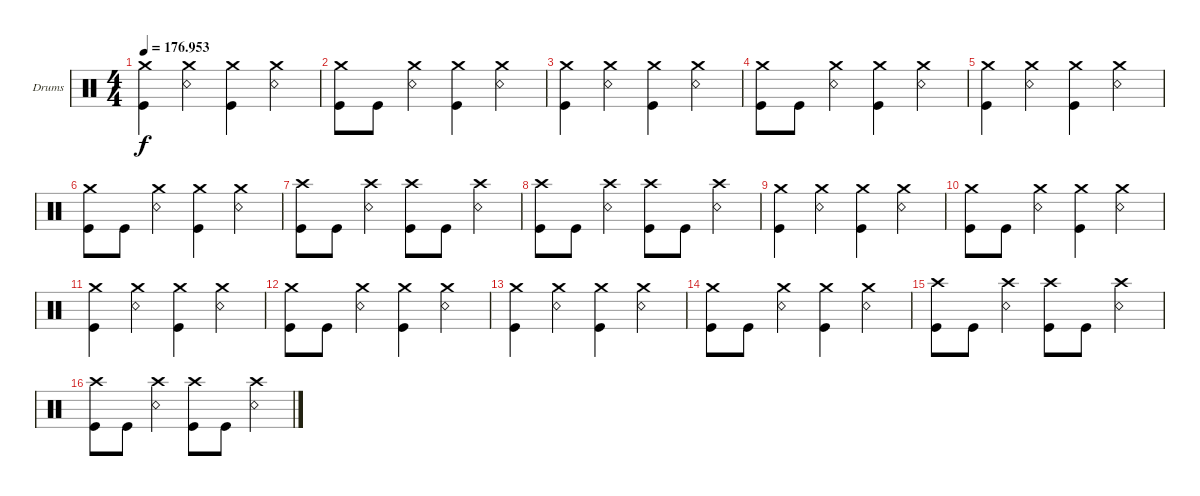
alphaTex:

\defaultSystemsLayout 4
\bracketExtendMode groupsimilarinstruments
\firstSystemTrackNameOrientation horizontal
\otherSystemsTrackNameOrientation horizontal
\track ("Christopher" "Drums") {instrument percussion}
\staff {score}
\articulation defaults
\ts (4 4)
\tempo
176.953
\accidentals auto
\clef neutral
\ottava regular
\simile none
\ks c
("Kick (hit)" "Crash medium (hit)").4{dy f} ("Snare (rim shot)" "Crash medium (hit)").4 ("Kick (hit)" "Crash medium (hit)").4 ("Snare (rim shot)" "Crash medium (hit)").4 |
("Kick (hit)" "Crash medium (hit)").8 "Kick (hit)".8 ("Snare (rim shot)" "Crash medium (hit)").4 ("Kick (hit)" "Crash medium (hit)").4 ("Snare (rim shot)" "Crash medium (hit)").4 |
("Kick (hit)" "Crash medium (hit)").4 ("Snare (rim shot)" "Crash medium (hit)").4 ("Kick (hit)" "Crash medium (hit)").4 ("Snare (rim shot)" "Crash medium (hit)").4 |
("Kick (hit)" "Crash medium (hit)").8 "Kick (hit)".8 ("Snare (rim shot)" "Crash medium (hit)").4 ("Kick (hit)" "Crash medium (hit)").4 ("Snare (rim shot)" "Crash medium (hit)").4 |
("Kick (hit)" "Crash medium (hit)").4 ("Snare (rim shot)" "Crash medium (hit)").4 ("Kick (hit)" "Crash medium (hit)").4 ("Snare (rim shot)" "Crash medium (hit)").4 |
("Kick (hit)" "Crash medium (hit)").8 "Kick (hit)".8 ("Snare (rim shot)" "Crash medium (hit)").4 ("Kick (hit)" "Crash medium (hit)").4 ("Snare (rim shot)" "Crash medium (hit)").4 |
("Kick (hit)" "Crash high (hit)").8 "Kick (hit)".8 ("Snare (rim shot)" "Crash high (hit)").4 ("Kick (hit)" "Crash high (hit)").8 "Kick (hit)".8 ("Snare (rim shot)" "Crash high (hit)").4 |
("Kick (hit)" "Crash high (hit)").8 "Kick (hit)".8 ("Snare (rim shot)" "Crash high (hit)").4 ("Kick (hit)" "Crash high (hit)").8 "Kick (hit)".8 ("Snare (rim shot)" "Crash high (hit)").4 |
("Kick (hit)" "Crash medium (hit)").4 ("Snare (rim shot)" "Crash medium (hit)").4 ("Kick (hit)" "Crash medium (hit)").4 ("Snare (rim shot)" "Crash medium (hit)").4 |
("Kick (hit)" "Crash medium (hit)").8 "Kick (hit)".8 ("Snare (rim shot)" "Crash medium (hit)").4 ("Kick (hit)" "Crash medium (hit)").4 ("Snare (rim shot)" "Crash medium (hit)").4 |
("Kick (hit)" "Crash medium (hit)").4 ("Snare (rim shot)" "Crash medium (hit)").4 ("Kick (hit)" "Crash medium (hit)").4 ("Snare (rim shot)" "Crash medium (hit)").4 |
("Kick (hit)" "Crash medium (hit)").8 "Kick (hit)".8 ("Snare (rim shot)" "Crash medium (hit)").4 ("Kick (hit)" "Crash medium (hit)").4 ("Snare (rim shot)" "Crash medium (hit)").4 |
("Kick (hit)" "Crash medium (hit)").4 ("Snare (rim shot)" "Crash medium (hit)").4 ("Kick (hit)" "Crash medium (hit)").4 ("Snare (rim shot)" "Crash medium (hit)").4 |
("Kick (hit)" "Crash medium (hit)").8 "Kick (hit)".8 ("Snare (rim shot)" "Crash medium (hit)").4 ("Kick (hit)" "Crash medium (hit)").4 ("Snare (rim shot)" "Crash medium (hit)").4 |
("Kick (hit)" "Crash high (hit)").8 "Kick (hit)".8 ("Snare (rim shot)" "Crash high (hit)").4 ("Kick (hit)" "Crash high (hit)").8 "Kick (hit)".8 ("Snare (rim shot)" "Crash high (hit)").4 |
("Kick (hit)" "Crash high (hit)").8 "Kick (hit)".8 ("Snare (rim shot)" "Crash high (hit)").4 ("Kick (hit)" "Crash high (hit)").8 "Kick (hit)".8 ("Snare (rim shot)" "Crash high (hit)").4
